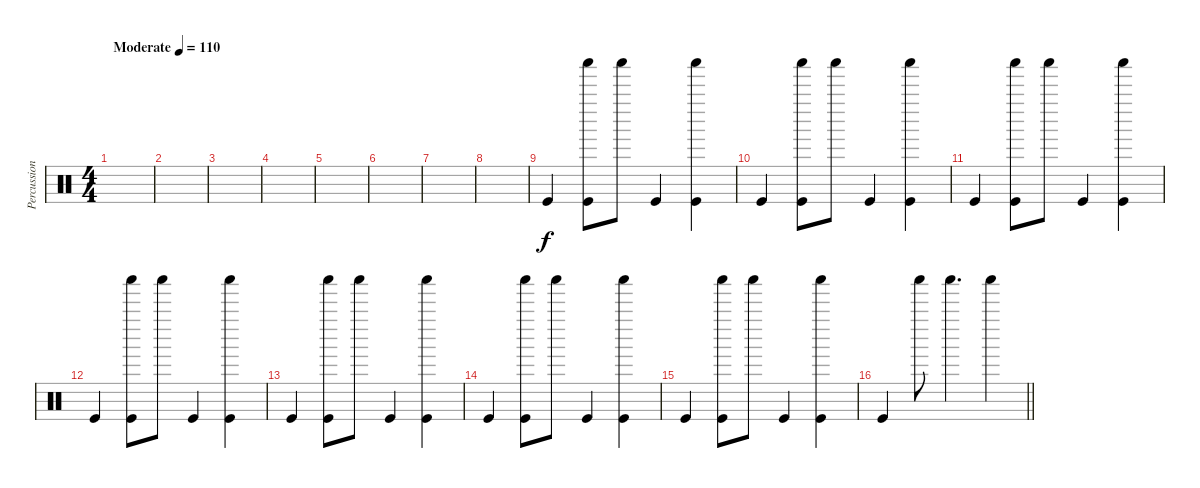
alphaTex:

\track ("Percussion" "Percussion") {instrument percussion}
\staff {score}
\articulation defaults
\ts (4 4)
\tempo (110 "Moderate")
\clef neutral
\ks c
|
|
|
|
|
|
|
|
"Kick (hit)".4 ("Shaker (hit)" "Kick (hit)").8 "Shaker (hit)".8 "Kick (hit)".4 ("Shaker (hit)" "Kick (hit)").4 |
"Kick (hit)".4 ("Shaker (hit)" "Kick (hit)").8 "Shaker (hit)".8 "Kick (hit)".4 ("Shaker (hit)" "Kick (hit)").4 |
"Kick (hit)".4 ("Shaker (hit)" "Kick (hit)").8 "Shaker (hit)".8 "Kick (hit)".4 ("Shaker (hit)" "Kick (hit)").4 |
"Kick (hit)".4 ("Shaker (hit)" "Kick (hit)").8 "Shaker (hit)".8 "Kick (hit)".4 ("Shaker (hit)" "Kick (hit)").4 |
"Kick (hit)".4 ("Shaker (hit)" "Kick (hit)").8 "Shaker (hit)".8 "Kick (hit)".4 ("Shaker (hit)" "Kick (hit)").4 |
"Kick (hit)".4 ("Shaker (hit)" "Kick (hit)").8 "Shaker (hit)".8 "Kick (hit)".4 ("Shaker (hit)" "Kick (hit)").4 |
"Kick (hit)".4 ("Shaker (hit)" "Kick (hit)").8 "Shaker (hit)".8 "Kick (hit)".4 ("Shaker (hit)" "Kick (hit)").4 |
\barLineRight lightlight "Kick (hit)".4 "Shaker (hit)".8 "Shaker (hit)".4{d} "Shaker (hit)".4
